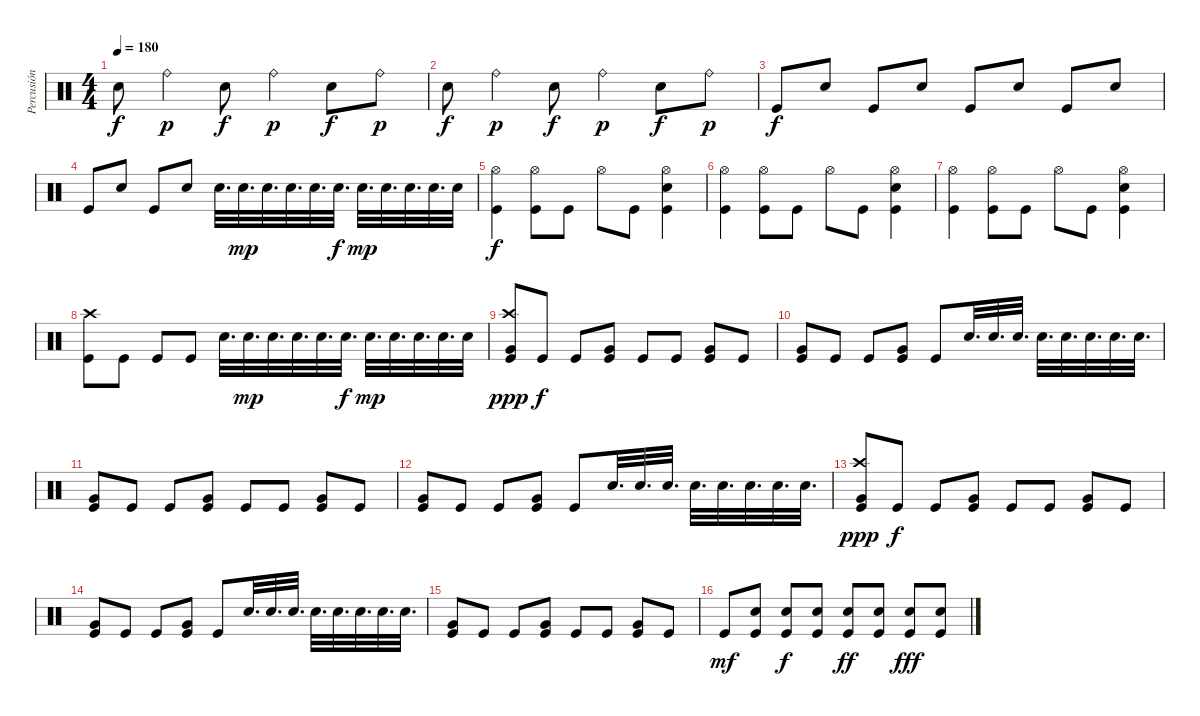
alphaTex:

\track ("Percusión" "Percusión") {instrument percussion}
\staff {score}
\articulation defaults
\ts (4 4)
\tempo 180
\clef neutral
\ks c "Snare (hit) 2".8{dy f} "Ride (bell)".4{dy p} "Snare (hit) 2".8{dy f} "Ride (bell)".4{dy p} "Snare (hit) 2".8{dy f} "Ride (bell)".8{dy p}
|
"Snare (hit) 2".8{dy f} "Ride (bell)".4{dy p} "Snare (hit) 2".8{dy f} "Ride (bell)".4{dy p} "Snare (hit) 2".8{dy f} "Ride (bell)".8{dy p} |
"Kick (hit)".8{dy f} "Snare (hit) 2".8 "Kick (hit)".8 "Snare (hit) 2".8 "Kick (hit)".8 "Snare (hit) 2".8 "Kick (hit)".8 "Snare (hit) 2".8 |
"Kick (hit)".8 "Snare (hit) 2".8 "Kick (hit)".8 "Snare (hit) 2".8 "Snare (hit) 2".32{d} "Snare (hit) 2".32{d dy mp} "Snare (hit) 2".32{d} "Snare (hit) 2".32{d} "Snare (hit) 2".32{d} "Snare (hit) 2".32{d dy f} "Snare (hit) 2".32{d dy mp} "Snare (hit) 2".32{d} "Snare (hit) 2".32{d} "Snare (hit) 2".32{d} "Snare (hit) 2".32 |
("Kick (hit)" "Hi-Hat (open)").4{dy f} ("Kick (hit)" "Hi-Hat (open)").8 "Kick (hit)".8 "Hi-Hat (open)".8 "Kick (hit)".8 ("Kick (hit)" "Snare (hit) 2" "Hi-Hat (open)").4 |
("Kick (hit)" "Hi-Hat (open)").4 ("Kick (hit)" "Hi-Hat (open)").8 "Kick (hit)".8 "Hi-Hat (open)".8 "Kick (hit)".8 ("Kick (hit)" "Snare (hit) 2" "Hi-Hat (open)").4 |
("Kick (hit)" "Hi-Hat (open)").4 ("Kick (hit)" "Hi-Hat (open)").8 "Kick (hit)".8 "Hi-Hat (open)".8 "Kick (hit)".8 ("Kick (hit)" "Snare (hit) 2" "Hi-Hat (open)").4 |
("Kick (hit)" "Crash high (hit)").8 "Kick (hit)".8 "Kick (hit)".8 "Kick (hit)".8 "Snare (hit) 2".32{d} "Snare (hit) 2".32{d dy mp} "Snare (hit) 2".32{d} "Snare (hit) 2".32{d} "Snare (hit) 2".32{d} "Snare (hit) 2".32{d dy f} "Snare (hit) 2".32{d dy mp} "Snare (hit) 2".32{d} "Snare (hit) 2".32{d} "Snare (hit) 2".32{d} "Snare (hit) 2".32 |
("Kick (hit)" "Very Low Tom (hit)" "Crash high (hit)").8{dy ppp} "Kick (hit)".8{dy f} "Kick (hit)".8 ("Kick (hit)" "Very Low Tom (hit)").8 "Kick (hit)".8 "Kick (hit)".8 ("Kick (hit)" "Very Low Tom (hit)").8 "Kick (hit)".8 |
("Kick (hit)" "Very Low Tom (hit)").8 "Kick (hit)".8 "Kick (hit)".8 ("Kick (hit)" "Very Low Tom (hit)").8 "Kick (hit)".8 "Snare (hit) 2".32{d} "Snare (hit) 2".32{d} "Snare (hit) 2".32{d} "Snare (hit) 2".32{d} "Snare (hit) 2".32{d} "Snare (hit) 2".32{d} "Snare (hit) 2".32{d} "Snare (hit) 2".32{d} |
("Kick (hit)" "Very Low Tom (hit)").8 "Kick (hit)".8 "Kick (hit)".8 ("Kick (hit)" "Very Low Tom (hit)").8 "Kick (hit)".8 "Kick (hit)".8 ("Kick (hit)" "Very Low Tom (hit)").8 "Kick (hit)".8 |
("Kick (hit)" "Very Low Tom (hit)").8 "Kick (hit)".8 "Kick (hit)".8 ("Kick (hit)" "Very Low Tom (hit)").8 "Kick (hit)".8 "Snare (hit) 2".32{d} "Snare (hit) 2".32{d} "Snare (hit) 2".32{d} "Snare (hit) 2".32{d} "Snare (hit) 2".32{d} "Snare (hit) 2".32{d} "Snare (hit) 2".32{d} "Snare (hit) 2".32{d} |
("Kick (hit)" "Very Low Tom (hit)" "Crash high (hit)").8{dy ppp} "Kick (hit)".8{dy f} "Kick (hit)".8 ("Kick (hit)" "Very Low Tom (hit)").8 "Kick (hit)".8 "Kick (hit)".8 ("Kick (hit)" "Very Low Tom (hit)").8 "Kick (hit)".8 |
("Kick (hit)" "Very Low Tom (hit)").8 "Kick (hit)".8 "Kick (hit)".8 ("Kick (hit)" "Very Low Tom (hit)").8 "Kick (hit)".8 "Snare (hit) 2".32{d} "Snare (hit) 2".32{d} "Snare (hit) 2".32{d} "Snare (hit) 2".32{d} "Snare (hit) 2".32{d} "Snare (hit) 2".32{d} "Snare (hit) 2".32{d} "Snare (hit) 2".32{d} |
("Kick (hit)" "Very Low Tom (hit)").8 "Kick (hit)".8 "Kick (hit)".8 ("Kick (hit)" "Very Low Tom (hit)").8 "Kick (hit)".8 "Kick (hit)".8 ("Kick (hit)" "Very Low Tom (hit)").8 "Kick (hit)".8 |
"Kick (hit)".8{dy mf} ("Kick (hit)" "Snare (hit) 2").8 ("Kick (hit)" "Snare (hit) 2").8{dy f} ("Kick (hit)" "Snare (hit) 2").8 ("Kick (hit)" "Snare (hit) 2").8{dy ff} ("Kick (hit)" "Snare (hit) 2").8 ("Kick (hit)" "Snare (hit) 2").8{dy fff} ("Kick (hit)" "Snare (hit) 2").8
